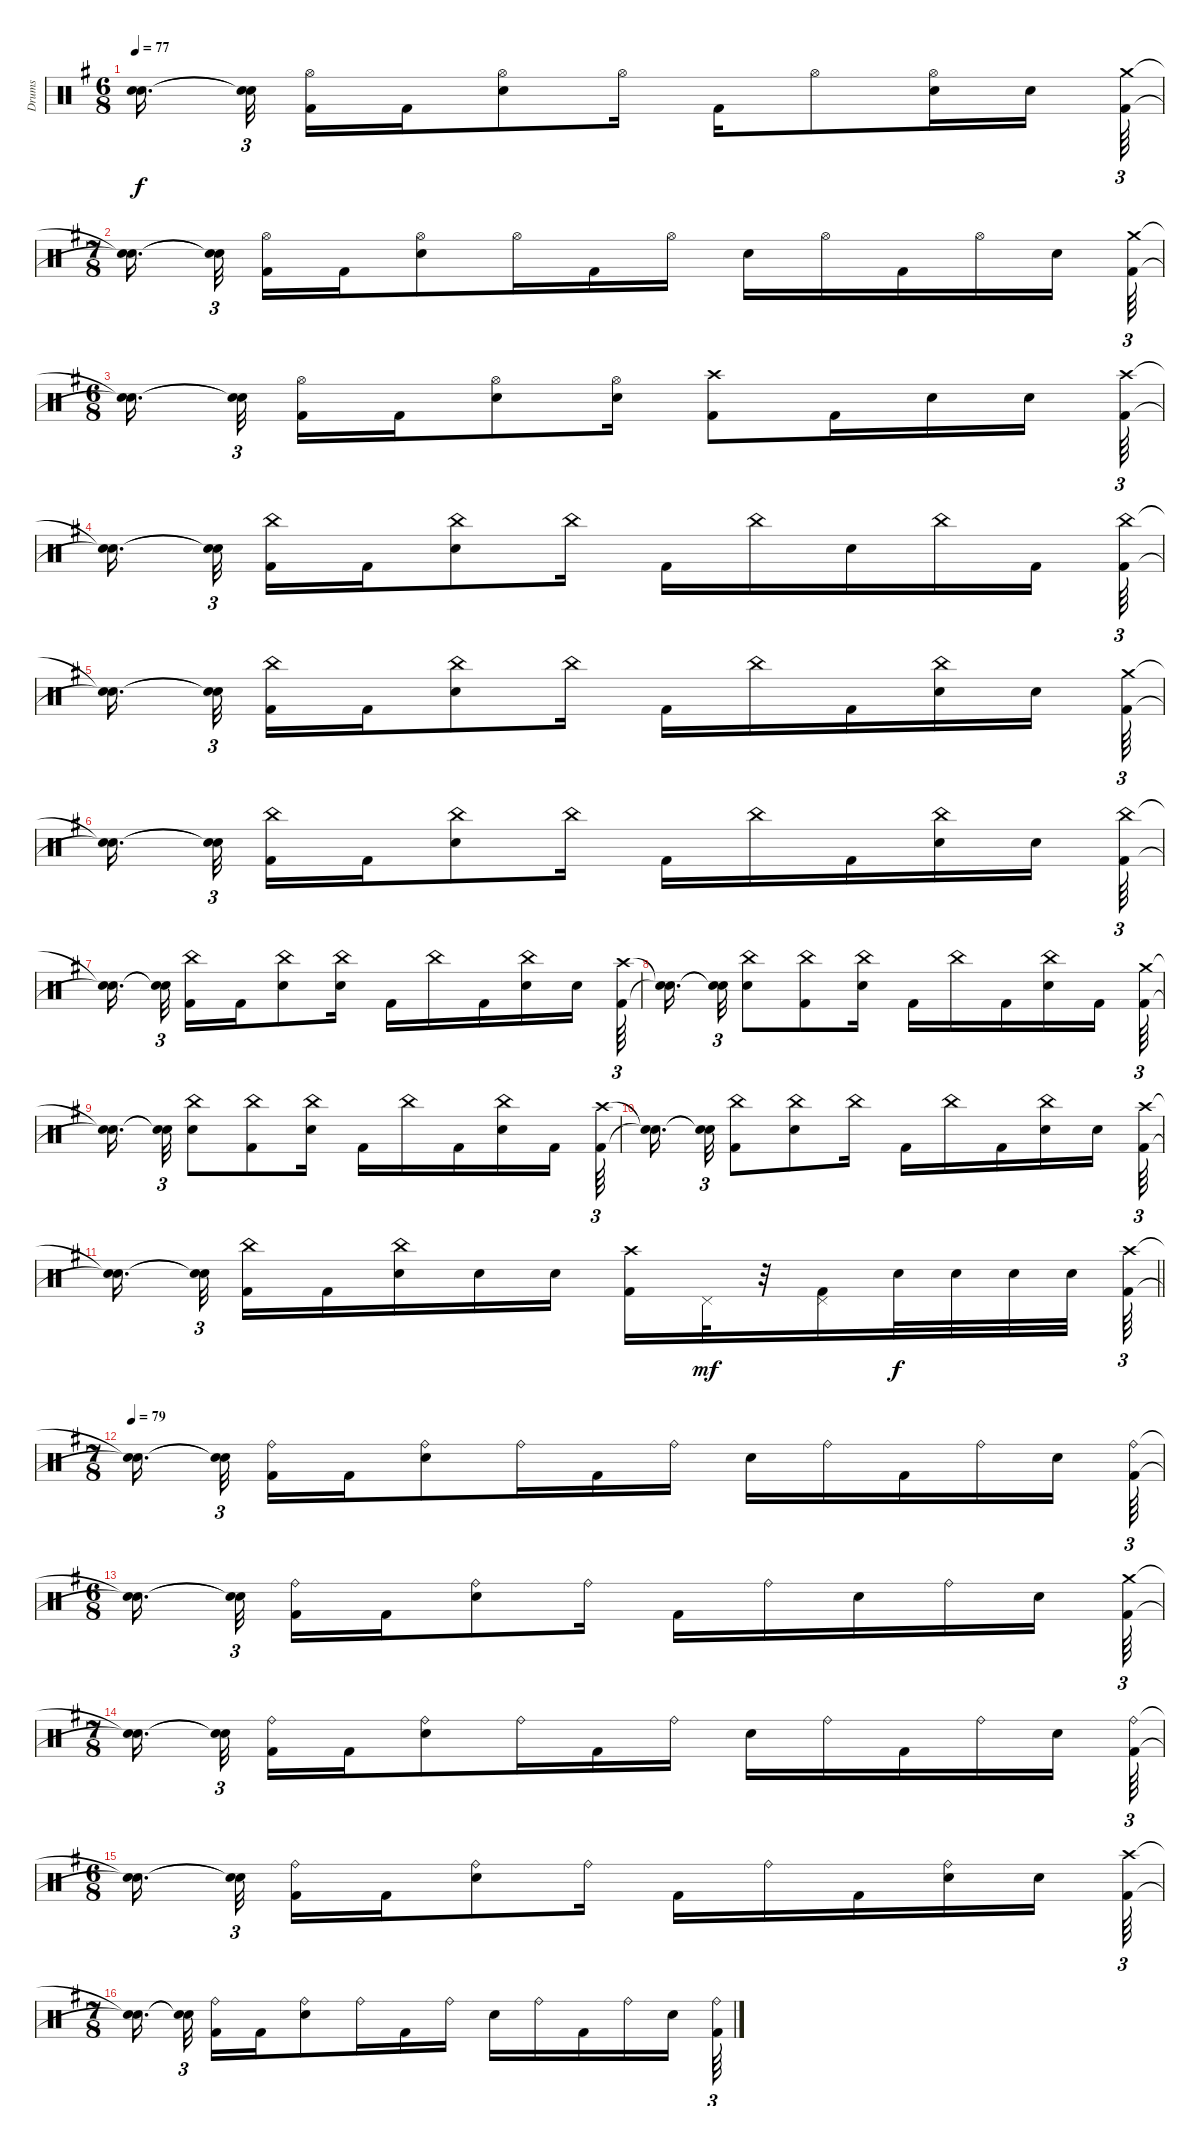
\track ("Drums" "Drums") {instrument percussion}
\staff {score}
\articulation defaults
\ts (6 8)
\tempo 77
\clef neutral
\ks g
("Snare (hit)"{t} "Snare (hit)"{t}).16{d dy f beam splitsecondary} ("Snare (hit)"{t} "Snare (hit)"{t}).32{tu (3 2) beam splitsecondary} ("Hi-Hat (open)" "Kick (hit) 2").16 "Kick (hit) 2".16 ("Hi-Hat (open)" "Electric Snare (hit)").8 "Hi-Hat (open)".16 "Kick (hit) 2".16 "Hi-Hat (open)".8 ("Hi-Hat (open)" "Electric Snare (hit)").16 "Electric Snare (hit)".16{beam splitsecondary} ("Kick (hit) 2" "Crash medium (hit)").64{tu (3 2)} |
\ts (7 8)
("Snare (hit)"{t} "Snare (hit)"{t}).16{d beam splitsecondary} ("Snare (hit)"{t} "Snare (hit)"{t}).32{tu (3 2)} ("Hi-Hat (open)" "Kick (hit) 2").16 "Kick (hit) 2".16 ("Electric Snare (hit)" "Hi-Hat (open)").8 "Hi-Hat (open)".16 "Kick (hit) 2".16 "Hi-Hat (open)".16 "Electric Snare (hit)".16 "Hi-Hat (open)".16 "Kick (hit) 2".16 "Hi-Hat (open)".16 "Electric Snare (hit)".16 ("Kick (hit) 2" "Crash medium (hit)").64{tu (3 2)} |
\ts (6 8)
("Snare (hit)"{t} "Snare (hit)"{t}).16{d beam splitsecondary} ("Snare (hit)"{t} "Snare (hit)"{t}).32{tu (3 2) beam splitsecondary} ("Hi-Hat (open)" "Kick (hit) 2").16 "Kick (hit) 2".16 ("Hi-Hat (open)" "Electric Snare (hit)").8 ("Electric Snare (hit)" "Hi-Hat (open)").16 ("Kick (hit) 2" "Crash high (hit)").8 "Kick (hit) 2".16 "Electric Snare (hit)".16 "Electric Snare (hit)".16{beam splitsecondary} ("Crash high (hit)" "Kick (hit) 2").64{tu (3 2)} |
("Snare (hit)"{t} "Snare (hit)"{t}).16{d beam splitsecondary} ("Snare (hit)"{t} "Snare (hit)"{t}).32{tu (3 2) beam splitsecondary} ("China (hit)" "Kick (hit) 2").16 "Kick (hit) 2".16 ("China (hit)" "Electric Snare (hit)").8 "China (hit)".16 "Kick (hit) 2".16 "China (hit)".16 "Electric Snare (hit)".16 "China (hit)".16 "Kick (hit) 2".16{beam splitsecondary} ("Kick (hit) 2" "China (hit)").64{tu (3 2)} |
("Snare (hit)"{t} "Snare (hit)"{t}).16{d beam splitsecondary} ("Snare (hit)"{t} "Snare (hit)"{t}).32{tu (3 2) beam splitsecondary} ("China (hit)" "Kick (hit) 2").16 "Kick (hit) 2".16 ("China (hit)" "Electric Snare (hit)").8 "China (hit)".16 "Kick (hit) 2".16 "China (hit)".16 "Kick (hit) 2".16 ("China (hit)" "Electric Snare (hit)").16 "Electric Snare (hit)".16{beam splitsecondary} ("Kick (hit) 2" "Crash medium (hit)").64{tu (3 2)} |
("Snare (hit)"{t} "Snare (hit)"{t}).16{d beam splitsecondary} ("Snare (hit)"{t} "Snare (hit)"{t}).32{tu (3 2) beam splitsecondary} ("China (hit)" "Kick (hit) 2").16 "Kick (hit) 2".16 ("China (hit)" "Electric Snare (hit)").8 "China (hit)".16 "Kick (hit) 2".16 "China (hit)".16 "Kick (hit) 2".16 ("China (hit)" "Electric Snare (hit)").16 "Electric Snare (hit)".16{beam splitsecondary} ("China (hit)" "Kick (hit) 2").64{tu (3 2)} |
("Snare (hit)"{t} "Snare (hit)"{t}).16{d beam splitsecondary} ("Snare (hit)"{t} "Snare (hit)"{t}).32{tu (3 2) beam splitsecondary} ("China (hit)" "Kick (hit) 2").16 "Kick (hit) 2".16 ("China (hit)" "Electric Snare (hit)").8 ("China (hit)" "Electric Snare (hit)").16 "Kick (hit) 2".16 "China (hit)".16 "Kick (hit) 2".16 ("China (hit)" "Electric Snare (hit)").16 "Electric Snare (hit)".16{beam splitsecondary} ("Kick (hit) 2" "Crash high (hit)").64{tu (3 2)} |
("Snare (hit)"{t} "Snare (hit)"{t}).16{d beam splitsecondary} ("Snare (hit)"{t} "Snare (hit)"{t}).32{tu (3 2)} ("China (hit)" "Electric Snare (hit)").8 ("China (hit)" "Kick (hit) 2").8 ("China (hit)" "Electric Snare (hit)").16 "Kick (hit) 2".16 "China (hit)".16 "Kick (hit) 2".16 ("China (hit)" "Electric Snare (hit)").16 "Kick (hit) 2".16{beam splitsecondary} ("Kick (hit) 2" "Crash medium (hit)").64{tu (3 2)} |
("Snare (hit)"{t} "Snare (hit)"{t}).16{d beam splitsecondary} ("Snare (hit)"{t} "Snare (hit)"{t}).32{tu (3 2)} ("China (hit)" "Electric Snare (hit)").8 ("China (hit)" "Kick (hit) 2").8 ("China (hit)" "Electric Snare (hit)").16 "Kick (hit) 2".16 "China (hit)".16 "Kick (hit) 2".16 ("China (hit)" "Electric Snare (hit)").16 "Kick (hit) 2".16{beam splitsecondary} ("Crash high (hit)" "Kick (hit) 2").64{tu (3 2)} |
("Snare (hit)"{t} "Snare (hit)"{t}).16{d beam splitsecondary} ("Snare (hit)"{t} "Snare (hit)"{t}).32{tu (3 2)} ("China (hit)" "Kick (hit) 2").8 ("China (hit)" "Electric Snare (hit)").8 "China (hit)".16 "Kick (hit) 2".16 "China (hit)".16 "Kick (hit) 2".16 ("China (hit)" "Electric Snare (hit)").16 "Electric Snare (hit)".16{beam splitsecondary} ("Kick (hit) 2" "Crash high (hit)").64{tu (3 2)} |
\barLineRight lightlight
("Snare (hit)"{t} "Snare (hit)"{t}).16{d beam splitsecondary} ("Snare (hit)"{t} "Snare (hit)"{t}).32{tu (3 2) beam splitsecondary} ("Kick (hit) 2" "China (hit)").16 "Kick (hit) 2".16 ("Electric Snare (hit)" "China (hit)").16 "Electric Snare (hit)".16 "Electric Snare (hit)".16 ("Crash high (hit)" "Kick (hit) 2").16 "Pedal Hi-Hat (hit)".32{dy mf} r.32 ("Kick (hit) 2" "Pedal Hi-Hat (hit)").16 "Electric Snare (hit)".32{dy f} "Electric Snare (hit)".32 "Electric Snare (hit)".32 "Electric Snare (hit)".32{beam splitsecondary} ("Kick (hit) 2" "Crash high (hit)").64{tu (3 2)} |
\ts (7 8)
\tempo 79
("Snare (hit)"{t} "Snare (hit)"{t}).16{d beam splitsecondary} ("Snare (hit)"{t} "Snare (hit)"{t}).32{tu (3 2)} ("Kick (hit) 2" "Ride (bell)").16 "Kick (hit) 2".16 ("Electric Snare (hit)" "Ride (bell)").8 "Ride (bell)".16 "Kick (hit) 2".16 "Ride (bell)".16 "Electric Snare (hit)".16 "Ride (bell)".16 "Kick (hit) 2".16 "Ride (bell)".16 "Electric Snare (hit)".16 ("Kick (hit) 2" "Ride (bell)").64{tu (3 2)} |
\ts (6 8)
("Snare (hit)"{t} "Snare (hit)"{t}).16{d beam splitsecondary} ("Snare (hit)"{t} "Snare (hit)"{t}).32{tu (3 2) beam splitsecondary} ("Ride (bell)" "Kick (hit) 2").16 "Kick (hit) 2".16 ("Electric Snare (hit)" "Ride (bell)").8 "Ride (bell)".16 "Kick (hit) 2".16 "Ride (bell)".16 "Electric Snare (hit)".16 "Ride (bell)".16 "Electric Snare (hit)".16{beam splitsecondary} ("Kick (hit) 2" "Crash medium (hit)").64{tu (3 2)} |
\ts (7 8)
("Snare (hit)"{t} "Snare (hit)"{t}).16{d beam splitsecondary} ("Snare (hit)"{t} "Snare (hit)"{t}).32{tu (3 2)} ("Kick (hit) 2" "Ride (bell)").16 "Kick (hit) 2".16 ("Electric Snare (hit)" "Ride (bell)").8 "Ride (bell)".16 "Kick (hit) 2".16 "Ride (bell)".16 "Electric Snare (hit)".16 "Ride (bell)".16 "Kick (hit) 2".16 "Ride (bell)".16 "Electric Snare (hit)".16 ("Kick (hit) 2" "Ride (bell)").64{tu (3 2)} |
\ts (6 8)
("Snare (hit)"{t} "Snare (hit)"{t}).16{d beam splitsecondary} ("Snare (hit)"{t} "Snare (hit)"{t}).32{tu (3 2) beam splitsecondary} ("Kick (hit) 2" "Ride (bell)").16 "Kick (hit) 2".16 ("Electric Snare (hit)" "Ride (bell)").8 "Ride (bell)".16 "Kick (hit) 2".16 "Ride (bell)".16 "Kick (hit) 2".16 ("Electric Snare (hit)" "Ride (bell)").16 "Electric Snare (hit)".16{beam splitsecondary} ("Crash high (hit)" "Kick (hit) 2").64{tu (3 2)} |
\ts (7 8)
("Snare (hit)"{t} "Snare (hit)"{t}).16{d beam splitsecondary} ("Snare (hit)"{t} "Snare (hit)"{t}).32{tu (3 2)} ("Kick (hit) 2" "Ride (bell)").16 "Kick (hit) 2".16 ("Electric Snare (hit)" "Ride (bell)").8 "Ride (bell)".16 "Kick (hit) 2".16 "Ride (bell)".16 "Electric Snare (hit)".16 "Ride (bell)".16 "Kick (hit) 2".16 "Ride (bell)".16 "Electric Snare (hit)".16 ("Kick (hit) 2" "Ride (bell)").64{tu (3 2)}
